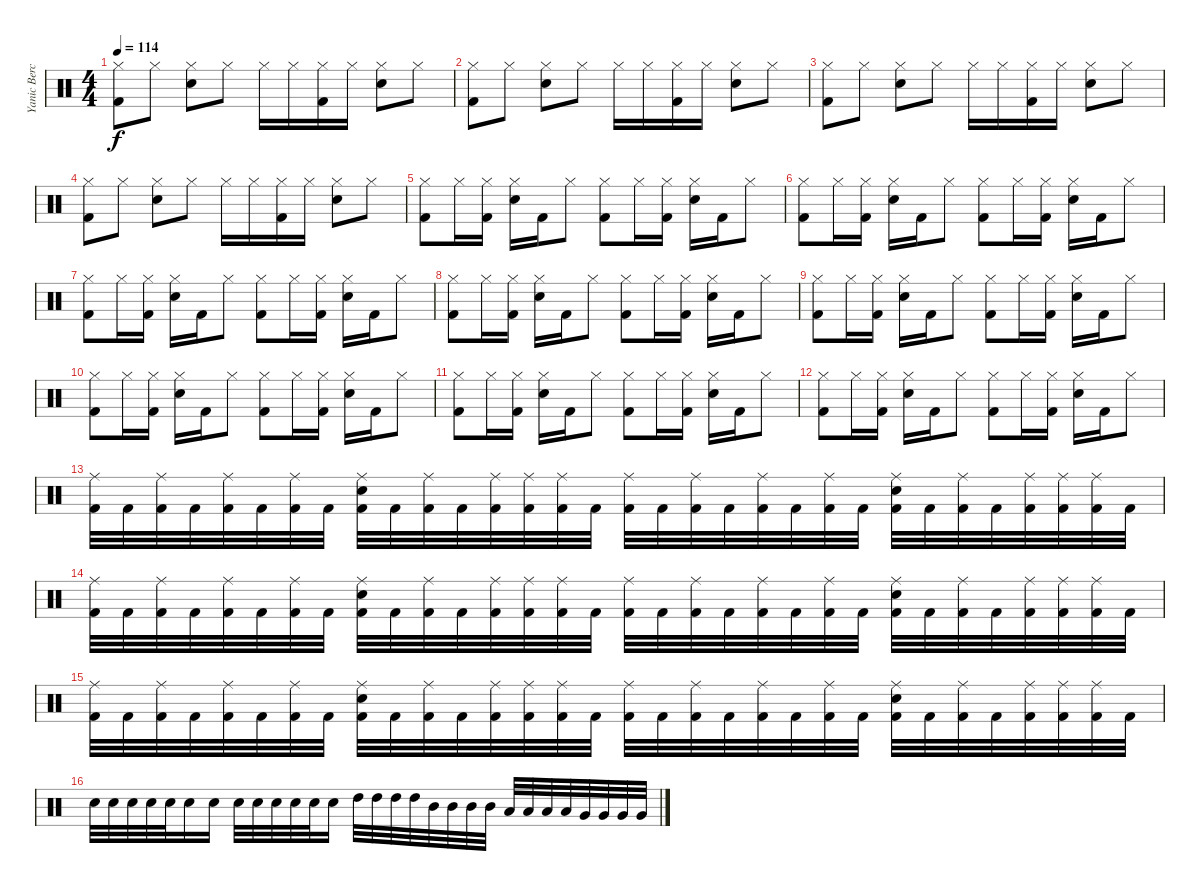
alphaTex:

\track ("Yanic Bercier" "Yanic Berc") {instrument percussion}
\staff {score}
\articulation defaults
\ts (4 4)
\tempo 114
\clef neutral
\ks c
("Hi-Hat (closed)" "Kick (hit) 2").8{dy f} "Hi-Hat (closed)".8 ("Hi-Hat (closed)" "Electric Snare (hit)").8 "Hi-Hat (closed)".8 "Hi-Hat (closed)".16 "Hi-Hat (closed)".16 ("Hi-Hat (closed)" "Kick (hit) 2").16 "Hi-Hat (closed)".16 ("Hi-Hat (closed)" "Electric Snare (hit)").8 "Hi-Hat (closed)".8 |
("Hi-Hat (closed)" "Kick (hit) 2").8 "Hi-Hat (closed)".8 ("Hi-Hat (closed)" "Electric Snare (hit)").8 "Hi-Hat (closed)".8 "Hi-Hat (closed)".16 "Hi-Hat (closed)".16 ("Hi-Hat (closed)" "Kick (hit) 2").16 "Hi-Hat (closed)".16 ("Hi-Hat (closed)" "Electric Snare (hit)").8 "Hi-Hat (closed)".8 |
("Hi-Hat (closed)" "Kick (hit) 2").8 "Hi-Hat (closed)".8 ("Hi-Hat (closed)" "Electric Snare (hit)").8 "Hi-Hat (closed)".8 "Hi-Hat (closed)".16 "Hi-Hat (closed)".16 ("Hi-Hat (closed)" "Kick (hit) 2").16 "Hi-Hat (closed)".16 ("Hi-Hat (closed)" "Electric Snare (hit)").8 "Hi-Hat (closed)".8 |
("Hi-Hat (closed)" "Kick (hit) 2").8 "Hi-Hat (closed)".8 ("Hi-Hat (closed)" "Electric Snare (hit)").8 "Hi-Hat (closed)".8 "Hi-Hat (closed)".16 "Hi-Hat (closed)".16 ("Hi-Hat (closed)" "Kick (hit) 2").16 "Hi-Hat (closed)".16 ("Hi-Hat (closed)" "Electric Snare (hit)").8 "Hi-Hat (closed)".8 |
("Hi-Hat (closed)" "Kick (hit) 2").8 "Hi-Hat (closed)".16 ("Hi-Hat (closed)" "Kick (hit) 2").16 ("Hi-Hat (closed)" "Electric Snare (hit)").16 "Kick (hit) 2".16 "Hi-Hat (closed)".8 ("Hi-Hat (closed)" "Kick (hit) 2").8 "Hi-Hat (closed)".16 ("Hi-Hat (closed)" "Kick (hit) 2").16 ("Hi-Hat (closed)" "Electric Snare (hit)").16 "Kick (hit) 2".16 "Hi-Hat (closed)".8 |
("Hi-Hat (closed)" "Kick (hit) 2").8 "Hi-Hat (closed)".16 ("Hi-Hat (closed)" "Kick (hit) 2").16 ("Hi-Hat (closed)" "Electric Snare (hit)").16 "Kick (hit) 2".16 "Hi-Hat (closed)".8 ("Hi-Hat (closed)" "Kick (hit) 2").8 "Hi-Hat (closed)".16 ("Hi-Hat (closed)" "Kick (hit) 2").16 ("Hi-Hat (closed)" "Electric Snare (hit)").16 "Kick (hit) 2".16 "Hi-Hat (closed)".8 |
("Hi-Hat (closed)" "Kick (hit) 2").8 "Hi-Hat (closed)".16 ("Hi-Hat (closed)" "Kick (hit) 2").16 ("Hi-Hat (closed)" "Electric Snare (hit)").16 "Kick (hit) 2".16 "Hi-Hat (closed)".8 ("Hi-Hat (closed)" "Kick (hit) 2").8 "Hi-Hat (closed)".16 ("Hi-Hat (closed)" "Kick (hit) 2").16 ("Hi-Hat (closed)" "Electric Snare (hit)").16 "Kick (hit) 2".16 "Hi-Hat (closed)".8 |
("Hi-Hat (closed)" "Kick (hit) 2").8 "Hi-Hat (closed)".16 ("Hi-Hat (closed)" "Kick (hit) 2").16 ("Hi-Hat (closed)" "Electric Snare (hit)").16 "Kick (hit) 2".16 "Hi-Hat (closed)".8 ("Hi-Hat (closed)" "Kick (hit) 2").8 "Hi-Hat (closed)".16 ("Hi-Hat (closed)" "Kick (hit) 2").16 ("Hi-Hat (closed)" "Electric Snare (hit)").16 "Kick (hit) 2".16 "Hi-Hat (closed)".8 |
("Hi-Hat (closed)" "Kick (hit) 2").8 "Hi-Hat (closed)".16 ("Hi-Hat (closed)" "Kick (hit) 2").16 ("Hi-Hat (closed)" "Electric Snare (hit)").16 "Kick (hit) 2".16 "Hi-Hat (closed)".8 ("Hi-Hat (closed)" "Kick (hit) 2").8 "Hi-Hat (closed)".16 ("Hi-Hat (closed)" "Kick (hit) 2").16 ("Hi-Hat (closed)" "Electric Snare (hit)").16 "Kick (hit) 2".16 "Hi-Hat (closed)".8 |
("Hi-Hat (closed)" "Kick (hit) 2").8 "Hi-Hat (closed)".16 ("Hi-Hat (closed)" "Kick (hit) 2").16 ("Hi-Hat (closed)" "Electric Snare (hit)").16 "Kick (hit) 2".16 "Hi-Hat (closed)".8 ("Hi-Hat (closed)" "Kick (hit) 2").8 "Hi-Hat (closed)".16 ("Hi-Hat (closed)" "Kick (hit) 2").16 ("Hi-Hat (closed)" "Electric Snare (hit)").16 "Kick (hit) 2".16 "Hi-Hat (closed)".8 |
("Hi-Hat (closed)" "Kick (hit) 2").8 "Hi-Hat (closed)".16 ("Hi-Hat (closed)" "Kick (hit) 2").16 ("Hi-Hat (closed)" "Electric Snare (hit)").16 "Kick (hit) 2".16 "Hi-Hat (closed)".8 ("Hi-Hat (closed)" "Kick (hit) 2").8 "Hi-Hat (closed)".16 ("Hi-Hat (closed)" "Kick (hit) 2").16 ("Hi-Hat (closed)" "Electric Snare (hit)").16 "Kick (hit) 2".16 "Hi-Hat (closed)".8 |
("Hi-Hat (closed)" "Kick (hit) 2").8 "Hi-Hat (closed)".16 ("Hi-Hat (closed)" "Kick (hit) 2").16 ("Hi-Hat (closed)" "Electric Snare (hit)").16 "Kick (hit) 2".16 "Hi-Hat (closed)".8 ("Hi-Hat (closed)" "Kick (hit) 2").8 "Hi-Hat (closed)".16 ("Hi-Hat (closed)" "Kick (hit) 2").16 ("Hi-Hat (closed)" "Electric Snare (hit)").16 "Kick (hit) 2".16 "Hi-Hat (closed)".8 |
("Ride (middle)" "Kick (hit) 2").32 "Kick (hit) 2".32 ("Ride (middle)" "Kick (hit) 2").32 "Kick (hit) 2".32 ("Ride (middle)" "Kick (hit) 2").32 "Kick (hit) 2".32 ("Ride (middle)" "Kick (hit) 2").32 "Kick (hit) 2".32 ("Ride (middle)" "Electric Snare (hit)" "Kick (hit) 2").32 "Kick (hit) 2".32 ("Ride (middle)" "Kick (hit) 2").32 "Kick (hit) 2".32 ("Ride (middle)" "Kick (hit) 2").32 ("Ride (middle)" "Kick (hit) 2").32 ("Ride (middle)" "Kick (hit) 2").32 "Kick (hit) 2".32 ("Ride (middle)" "Kick (hit) 2").32 "Kick (hit) 2".32 ("Ride (middle)" "Kick (hit) 2").32 "Kick (hit) 2".32 ("Ride (middle)" "Kick (hit) 2").32 "Kick (hit) 2".32 ("Ride (middle)" "Kick (hit) 2").32 "Kick (hit) 2".32 ("Ride (middle)" "Electric Snare (hit)" "Kick (hit) 2").32 "Kick (hit) 2".32 ("Ride (middle)" "Kick (hit) 2").32 "Kick (hit) 2".32 ("Ride (middle)" "Kick (hit) 2").32 ("Ride (middle)" "Kick (hit) 2").32 ("Ride (middle)" "Kick (hit) 2").32 "Kick (hit) 2".32 |
("Ride (middle)" "Kick (hit) 2").32 "Kick (hit) 2".32 ("Ride (middle)" "Kick (hit) 2").32 "Kick (hit) 2".32 ("Ride (middle)" "Kick (hit) 2").32 "Kick (hit) 2".32 ("Ride (middle)" "Kick (hit) 2").32 "Kick (hit) 2".32 ("Ride (middle)" "Electric Snare (hit)" "Kick (hit) 2").32 "Kick (hit) 2".32 ("Ride (middle)" "Kick (hit) 2").32 "Kick (hit) 2".32 ("Ride (middle)" "Kick (hit) 2").32 ("Ride (middle)" "Kick (hit) 2").32 ("Ride (middle)" "Kick (hit) 2").32 "Kick (hit) 2".32 ("Ride (middle)" "Kick (hit) 2").32 "Kick (hit) 2".32 ("Ride (middle)" "Kick (hit) 2").32 "Kick (hit) 2".32 ("Ride (middle)" "Kick (hit) 2").32 "Kick (hit) 2".32 ("Ride (middle)" "Kick (hit) 2").32 "Kick (hit) 2".32 ("Ride (middle)" "Electric Snare (hit)" "Kick (hit) 2").32 "Kick (hit) 2".32 ("Ride (middle)" "Kick (hit) 2").32 "Kick (hit) 2".32 ("Ride (middle)" "Kick (hit) 2").32 ("Ride (middle)" "Kick (hit) 2").32 ("Ride (middle)" "Kick (hit) 2").32 "Kick (hit) 2".32 |
("Ride (middle)" "Kick (hit) 2").32 "Kick (hit) 2".32 ("Ride (middle)" "Kick (hit) 2").32 "Kick (hit) 2".32 ("Ride (middle)" "Kick (hit) 2").32 "Kick (hit) 2".32 ("Ride (middle)" "Kick (hit) 2").32 "Kick (hit) 2".32 ("Ride (middle)" "Electric Snare (hit)" "Kick (hit) 2").32 "Kick (hit) 2".32 ("Ride (middle)" "Kick (hit) 2").32 "Kick (hit) 2".32 ("Ride (middle)" "Kick (hit) 2").32 ("Ride (middle)" "Kick (hit) 2").32 ("Ride (middle)" "Kick (hit) 2").32 "Kick (hit) 2".32 ("Ride (middle)" "Kick (hit) 2").32 "Kick (hit) 2".32 ("Ride (middle)" "Kick (hit) 2").32 "Kick (hit) 2".32 ("Ride (middle)" "Kick (hit) 2").32 "Kick (hit) 2".32 ("Ride (middle)" "Kick (hit) 2").32 "Kick (hit) 2".32 ("Ride (middle)" "Electric Snare (hit)" "Kick (hit) 2").32 "Kick (hit) 2".32 ("Ride (middle)" "Kick (hit) 2").32 "Kick (hit) 2".32 ("Ride (middle)" "Kick (hit) 2").32 ("Ride (middle)" "Kick (hit) 2").32 ("Ride (middle)" "Kick (hit) 2").32 "Kick (hit) 2".32 |
"Electric Snare (hit)".32 "Electric Snare (hit)".32 "Electric Snare (hit)".32 "Electric Snare (hit)".32 "Electric Snare (hit)".32 "Electric Snare (hit)".16 "Electric Snare (hit)".16 "Electric Snare (hit)".32 "Electric Snare (hit)".32 "Electric Snare (hit)".32 "Electric Snare (hit)".32 "Electric Snare (hit)".32 "Electric Snare (hit)".16 "High Tom (hit)".32 "High Tom (hit)".32 "High Tom (hit)".32 "High Tom (hit)".32 "Mid Tom (hit)".32 "Mid Tom (hit)".32 "Mid Tom (hit)".32 "Mid Tom (hit)".32 "Low Tom (hit)".32 "Low Tom (hit)".32 "Low Tom (hit)".32 "Low Tom (hit)".32 "Very Low Tom (hit)".32 "Very Low Tom (hit)".32 "Very Low Tom (hit)".32 "Very Low Tom (hit)".32
